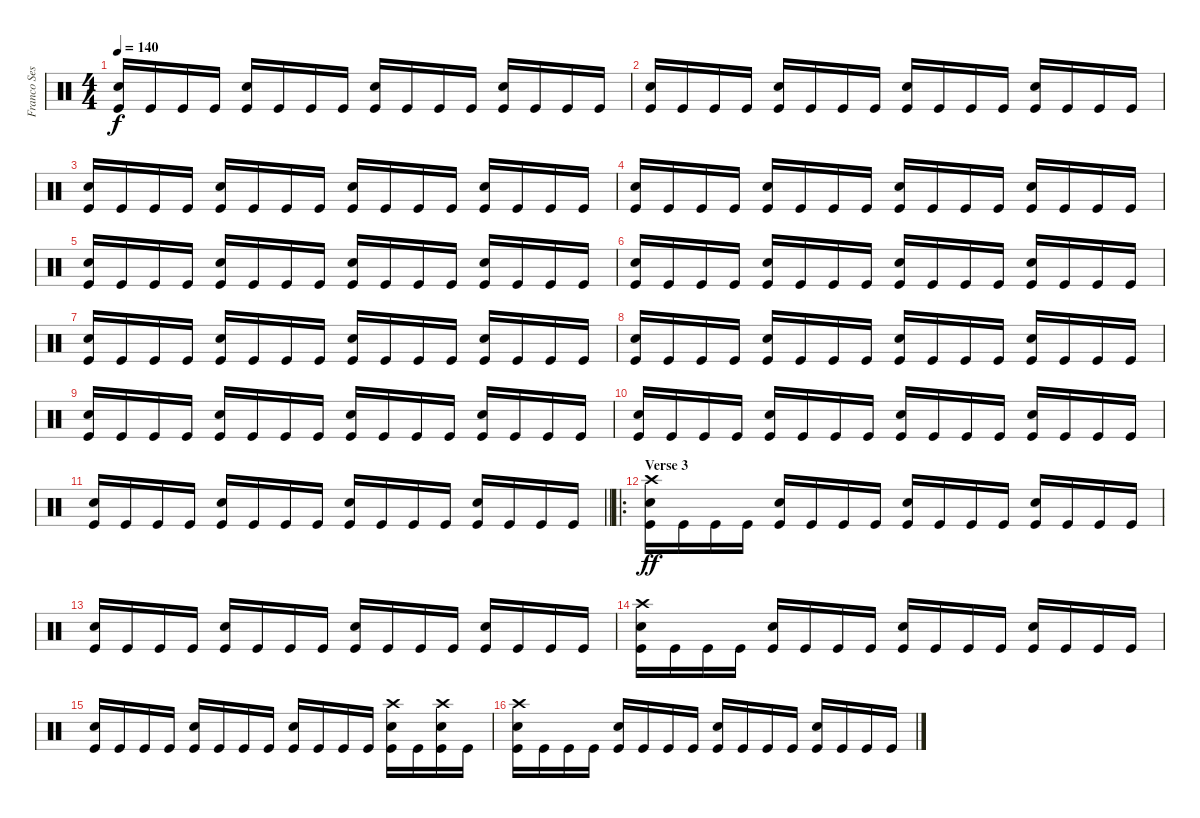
\track ("Franco Sesa" "Franco Ses") {instrument percussion}
\staff {score}
\articulation defaults
\ts (4 4)
\tempo 140
\clef neutral
\ks c
("Electric Snare (hit)" "Kick (hit)").16{dy f} "Kick (hit)".16 "Kick (hit)".16 "Kick (hit)".16 ("Electric Snare (hit)" "Kick (hit)").16 "Kick (hit)".16 "Kick (hit)".16 "Kick (hit)".16 ("Electric Snare (hit)" "Kick (hit)").16 "Kick (hit)".16 "Kick (hit)".16 "Kick (hit)".16 ("Electric Snare (hit)" "Kick (hit)").16 "Kick (hit)".16 "Kick (hit)".16 "Kick (hit)".16 |
("Electric Snare (hit)" "Kick (hit)").16 "Kick (hit)".16 "Kick (hit)".16 "Kick (hit)".16 ("Electric Snare (hit)" "Kick (hit)").16 "Kick (hit)".16 "Kick (hit)".16 "Kick (hit)".16 ("Electric Snare (hit)" "Kick (hit)").16 "Kick (hit)".16 "Kick (hit)".16 "Kick (hit)".16 ("Electric Snare (hit)" "Kick (hit)").16 "Kick (hit)".16 "Kick (hit)".16 "Kick (hit)".16 |
("Electric Snare (hit)" "Kick (hit)").16 "Kick (hit)".16 "Kick (hit)".16 "Kick (hit)".16 ("Electric Snare (hit)" "Kick (hit)").16 "Kick (hit)".16 "Kick (hit)".16 "Kick (hit)".16 ("Electric Snare (hit)" "Kick (hit)").16 "Kick (hit)".16 "Kick (hit)".16 "Kick (hit)".16 ("Electric Snare (hit)" "Kick (hit)").16 "Kick (hit)".16 "Kick (hit)".16 "Kick (hit)".16 |
("Electric Snare (hit)" "Kick (hit)").16 "Kick (hit)".16 "Kick (hit)".16 "Kick (hit)".16 ("Electric Snare (hit)" "Kick (hit)").16 "Kick (hit)".16 "Kick (hit)".16 "Kick (hit)".16 ("Electric Snare (hit)" "Kick (hit)").16 "Kick (hit)".16 "Kick (hit)".16 "Kick (hit)".16 ("Electric Snare (hit)" "Kick (hit)").16 "Kick (hit)".16 "Kick (hit)".16 "Kick (hit)".16 |
("Electric Snare (hit)" "Kick (hit)").16 "Kick (hit)".16 "Kick (hit)".16 "Kick (hit)".16 ("Electric Snare (hit)" "Kick (hit)").16 "Kick (hit)".16 "Kick (hit)".16 "Kick (hit)".16 ("Electric Snare (hit)" "Kick (hit)").16 "Kick (hit)".16 "Kick (hit)".16 "Kick (hit)".16 ("Electric Snare (hit)" "Kick (hit)").16 "Kick (hit)".16 "Kick (hit)".16 "Kick (hit)".16 |
("Electric Snare (hit)" "Kick (hit)").16 "Kick (hit)".16 "Kick (hit)".16 "Kick (hit)".16 ("Electric Snare (hit)" "Kick (hit)").16 "Kick (hit)".16 "Kick (hit)".16 "Kick (hit)".16 ("Electric Snare (hit)" "Kick (hit)").16 "Kick (hit)".16 "Kick (hit)".16 "Kick (hit)".16 ("Electric Snare (hit)" "Kick (hit)").16 "Kick (hit)".16 "Kick (hit)".16 "Kick (hit)".16 |
("Electric Snare (hit)" "Kick (hit)").16 "Kick (hit)".16 "Kick (hit)".16 "Kick (hit)".16 ("Electric Snare (hit)" "Kick (hit)").16 "Kick (hit)".16 "Kick (hit)".16 "Kick (hit)".16 ("Electric Snare (hit)" "Kick (hit)").16 "Kick (hit)".16 "Kick (hit)".16 "Kick (hit)".16 ("Electric Snare (hit)" "Kick (hit)").16 "Kick (hit)".16 "Kick (hit)".16 "Kick (hit)".16 |
("Electric Snare (hit)" "Kick (hit)").16 "Kick (hit)".16 "Kick (hit)".16 "Kick (hit)".16 ("Electric Snare (hit)" "Kick (hit)").16 "Kick (hit)".16 "Kick (hit)".16 "Kick (hit)".16 ("Electric Snare (hit)" "Kick (hit)").16 "Kick (hit)".16 "Kick (hit)".16 "Kick (hit)".16 ("Electric Snare (hit)" "Kick (hit)").16 "Kick (hit)".16 "Kick (hit)".16 "Kick (hit)".16 |
("Electric Snare (hit)" "Kick (hit)").16 "Kick (hit)".16 "Kick (hit)".16 "Kick (hit)".16 ("Electric Snare (hit)" "Kick (hit)").16 "Kick (hit)".16 "Kick (hit)".16 "Kick (hit)".16 ("Electric Snare (hit)" "Kick (hit)").16 "Kick (hit)".16 "Kick (hit)".16 "Kick (hit)".16 ("Electric Snare (hit)" "Kick (hit)").16 "Kick (hit)".16 "Kick (hit)".16 "Kick (hit)".16 |
("Electric Snare (hit)" "Kick (hit)").16 "Kick (hit)".16 "Kick (hit)".16 "Kick (hit)".16 ("Electric Snare (hit)" "Kick (hit)").16 "Kick (hit)".16 "Kick (hit)".16 "Kick (hit)".16 ("Electric Snare (hit)" "Kick (hit)").16 "Kick (hit)".16 "Kick (hit)".16 "Kick (hit)".16 ("Electric Snare (hit)" "Kick (hit)").16 "Kick (hit)".16 "Kick (hit)".16 "Kick (hit)".16 |
\barLineRight lightlight
("Electric Snare (hit)" "Kick (hit)").16 "Kick (hit)".16 "Kick (hit)".16 "Kick (hit)".16 ("Electric Snare (hit)" "Kick (hit)").16 "Kick (hit)".16 "Kick (hit)".16 "Kick (hit)".16 ("Electric Snare (hit)" "Kick (hit)").16 "Kick (hit)".16 "Kick (hit)".16 "Kick (hit)".16 ("Electric Snare (hit)" "Kick (hit)").16 "Kick (hit)".16 "Kick (hit)".16 "Kick (hit)".16 |
\ro
\section ("" "Verse 3")
("Crash high (hit)" "Electric Snare (hit)" "Kick (hit)").16{dy ff} "Kick (hit)".16 "Kick (hit)".16 "Kick (hit)".16 ("Electric Snare (hit)" "Kick (hit)").16 "Kick (hit)".16 "Kick (hit)".16 "Kick (hit)".16 ("Electric Snare (hit)" "Kick (hit)").16 "Kick (hit)".16 "Kick (hit)".16 "Kick (hit)".16 ("Electric Snare (hit)" "Kick (hit)").16 "Kick (hit)".16 "Kick (hit)".16 "Kick (hit)".16 |
("Electric Snare (hit)" "Kick (hit)").16 "Kick (hit)".16 "Kick (hit)".16 "Kick (hit)".16 ("Electric Snare (hit)" "Kick (hit)").16 "Kick (hit)".16 "Kick (hit)".16 "Kick (hit)".16 ("Electric Snare (hit)" "Kick (hit)").16 "Kick (hit)".16 "Kick (hit)".16 "Kick (hit)".16 ("Electric Snare (hit)" "Kick (hit)").16 "Kick (hit)".16 "Kick (hit)".16 "Kick (hit)".16 |
("Crash high (hit)" "Electric Snare (hit)" "Kick (hit)").16 "Kick (hit)".16 "Kick (hit)".16 "Kick (hit)".16 ("Electric Snare (hit)" "Kick (hit)").16 "Kick (hit)".16 "Kick (hit)".16 "Kick (hit)".16 ("Electric Snare (hit)" "Kick (hit)").16 "Kick (hit)".16 "Kick (hit)".16 "Kick (hit)".16 ("Electric Snare (hit)" "Kick (hit)").16 "Kick (hit)".16 "Kick (hit)".16 "Kick (hit)".16 |
("Electric Snare (hit)" "Kick (hit)").16 "Kick (hit)".16 "Kick (hit)".16 "Kick (hit)".16 ("Electric Snare (hit)" "Kick (hit)").16 "Kick (hit)".16 "Kick (hit)".16 "Kick (hit)".16 ("Electric Snare (hit)" "Kick (hit)").16 "Kick (hit)".16 "Kick (hit)".16 "Kick (hit)".16 ("Crash high (hit)" "Electric Snare (hit)" "Kick (hit)").16 "Kick (hit)".16 ("Crash high (hit)" "Electric Snare (hit)" "Kick (hit)").16 "Kick (hit)".16 |
("Crash high (hit)" "Electric Snare (hit)" "Kick (hit)").16 "Kick (hit)".16 "Kick (hit)".16 "Kick (hit)".16 ("Electric Snare (hit)" "Kick (hit)").16 "Kick (hit)".16 "Kick (hit)".16 "Kick (hit)".16 ("Electric Snare (hit)" "Kick (hit)").16 "Kick (hit)".16 "Kick (hit)".16 "Kick (hit)".16 ("Electric Snare (hit)" "Kick (hit)").16 "Kick (hit)".16 "Kick (hit)".16 "Kick (hit)".16
